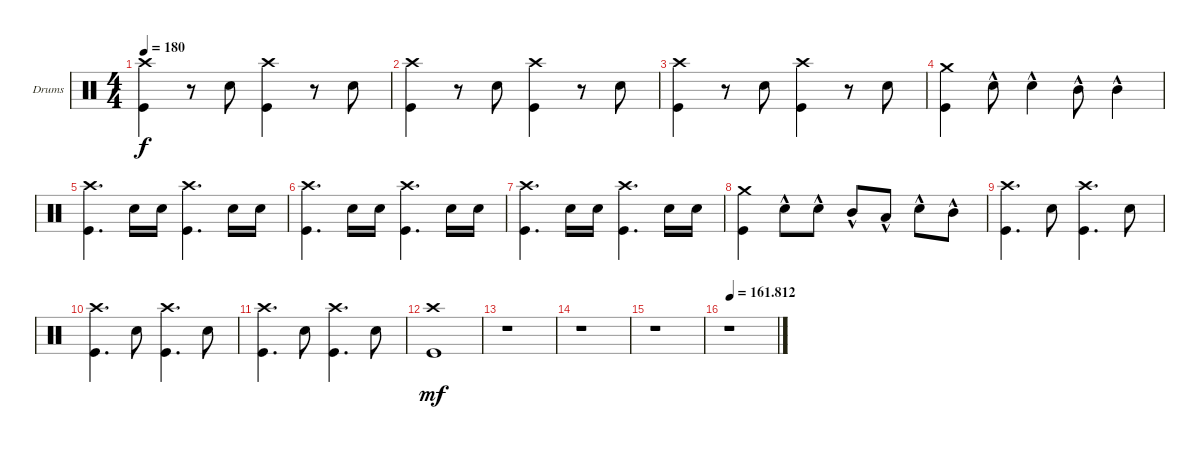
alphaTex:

\bracketExtendMode groupsimilarinstruments
\firstSystemTrackNameOrientation horizontal
\otherSystemsTrackNameOrientation horizontal
\track ("Drumkit" "Drums") {solo instrument percussion}
\staff {score}
\articulation defaults
\ts (4 4)
\tempo 180
\clef neutral
\ks c
("Crash high (hit)" "Kick (hit)").4{dy f} r.8 "Snare (hit) 2".8 ("Crash high (hit)" "Kick (hit)").4 r.8 "Snare (hit) 2".8 |
("Crash high (hit)" "Kick (hit)").4 r.8 "Snare (hit) 2".8 ("Crash high (hit)" "Kick (hit)").4 r.8 "Snare (hit) 2".8 |
("Crash high (hit)" "Kick (hit)").4 r.8 "Snare (hit) 2".8 ("Crash high (hit)" "Kick (hit)").4 r.8 "Snare (hit) 2".8 |
("Crash medium (hit)" "Kick (hit)").4 "Snare (hit) 2"{hac}.8 "Snare (hit) 2"{hac}.4 "Mid Tom (hit)"{hac}.8 "Mid Tom (hit)"{hac}.4 |
("Crash high (hit)" "Kick (hit)").4{d} "Snare (hit) 2".16 "Snare (hit) 2".16 ("Crash high (hit)" "Kick (hit)").4{d} "Snare (hit) 2".16 "Snare (hit) 2".16 |
("Crash high (hit)" "Kick (hit)").4{d} "Snare (hit) 2".16 "Snare (hit) 2".16 ("Crash high (hit)" "Kick (hit)").4{d} "Snare (hit) 2".16 "Snare (hit) 2".16 |
("Crash high (hit)" "Kick (hit)").4{d} "Snare (hit) 2".16 "Snare (hit) 2".16 ("Crash high (hit)" "Kick (hit)").4{d} "Snare (hit) 2".16 "Snare (hit) 2".16 |
("Crash medium (hit)" "Kick (hit)").4 "Snare (hit) 2"{hac}.8 "Snare (hit) 2"{hac}.8 "Mid Tom (hit)"{hac}.8 "Low Tom (hit)"{hac}.8 "Snare (hit) 2"{hac}.8 "Mid Tom (hit)"{hac}.8 |
("Crash high (hit)" "Kick (hit)").4{d} "Snare (hit) 2".8 ("Crash high (hit)" "Kick (hit)").4{d} "Snare (hit) 2".8 |
("Crash high (hit)" "Kick (hit)").4{d} "Snare (hit) 2".8 ("Crash high (hit)" "Kick (hit)").4{d} "Snare (hit) 2".8 |
("Crash high (hit)" "Kick (hit)").4{d} "Snare (hit) 2".8 ("Crash high (hit)" "Kick (hit)").4{d} "Snare (hit) 2".8 |
("Crash high (hit)" "Kick (hit)").1{dy mf} |
r.1 |
r.1 |
r.1 |
\tempo (161.812 0.0375)
r.1
